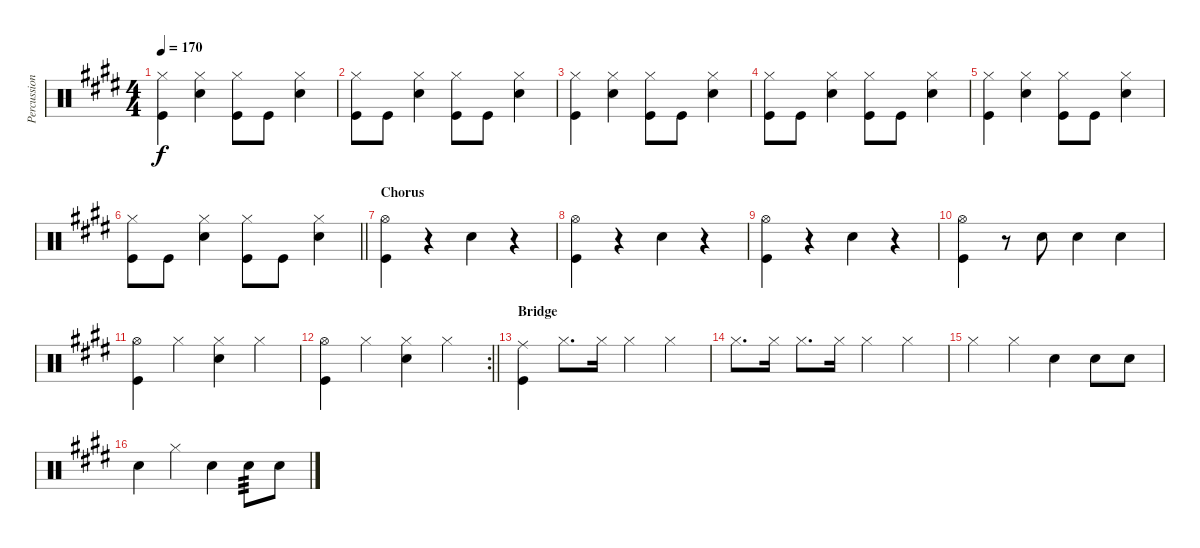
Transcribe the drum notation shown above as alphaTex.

\track ("Percussion" "Percussion") {instrument percussion}
\staff {score}
\articulation defaults
\ts (4 4)
\tempo 170
\clef neutral
\ks e
("Hi-Hat (closed)" "Kick (hit)").4{dy f} ("Hi-Hat (closed)" "Snare (hit) 2").4 ("Hi-Hat (closed)" "Kick (hit)").8 "Kick (hit)".8 ("Snare (hit) 2" "Hi-Hat (closed)").4 |
("Hi-Hat (closed)" "Kick (hit)").8 "Kick (hit)".8 ("Hi-Hat (closed)" "Snare (hit) 2").4 ("Hi-Hat (closed)" "Kick (hit)").8 "Kick (hit)".8 ("Snare (hit) 2" "Hi-Hat (closed)").4 |
("Hi-Hat (closed)" "Kick (hit)").4 ("Hi-Hat (closed)" "Snare (hit) 2").4 ("Hi-Hat (closed)" "Kick (hit)").8 "Kick (hit)".8 ("Snare (hit) 2" "Hi-Hat (closed)").4 |
("Hi-Hat (closed)" "Kick (hit)").8 "Kick (hit)".8 ("Hi-Hat (closed)" "Snare (hit) 2").4 ("Hi-Hat (closed)" "Kick (hit)").8 "Kick (hit)".8 ("Snare (hit) 2" "Hi-Hat (closed)").4 |
("Hi-Hat (closed)" "Kick (hit)").4 ("Hi-Hat (closed)" "Snare (hit) 2").4 ("Hi-Hat (closed)" "Kick (hit)").8 "Kick (hit)".8 ("Snare (hit) 2" "Hi-Hat (closed)").4 |
\barLineRight lightlight
("Hi-Hat (closed)" "Kick (hit)").8 "Kick (hit)".8 ("Hi-Hat (closed)" "Snare (hit) 2").4 ("Hi-Hat (closed)" "Kick (hit)").8 "Kick (hit)".8 ("Snare (hit) 2" "Hi-Hat (closed)").4 |
\section ("" "Chorus")
("Kick (hit)" "Hi-Hat (open)").4 r.4 "Snare (hit) 2".4 r.4 |
("Kick (hit)" "Hi-Hat (open)").4 r.4 "Snare (hit) 2".4 r.4 |
("Kick (hit)" "Hi-Hat (open)").4 r.4 "Snare (hit) 2".4 r.4 |
("Hi-Hat (open)" "Kick (hit)").4 r.8 "Snare (hit) 2".8 "Snare (hit) 2".4 "Snare (hit) 2".4 |
("Hi-Hat (open)" "Kick (hit)").4 "Hi-Hat (closed)".4 ("Hi-Hat (closed)" "Snare (hit) 2").4 "Hi-Hat (closed)".4 |
\rc 2
\barLineRight lightlight
("Hi-Hat (open)" "Kick (hit)").4 "Hi-Hat (closed)".4 ("Hi-Hat (closed)" "Snare (hit) 2").4 "Hi-Hat (closed)".4 |
\section ("" "Bridge")
("Kick (hit)" "Ride (middle)").4 "Hi-Hat (closed)".8{d} "Hi-Hat (closed)".16 "Hi-Hat (closed)".4 "Hi-Hat (closed)".4 |
"Hi-Hat (closed)".8{d} "Hi-Hat (closed)".16 "Hi-Hat (closed)".8{d} "Hi-Hat (closed)".16 "Hi-Hat (closed)".4 "Hi-Hat (closed)".4 |
"Hi-Hat (closed)".4 "Hi-Hat (closed)".4 "Snare (hit) 2".4 "Snare (hit) 2".8 "Snare (hit) 2".8 |
"Snare (hit) 2".4 "Hi-Hat (closed)".4 "Snare (hit) 2".4 "Snare (hit) 2".8{tp 3} "Snare (hit) 2".8
